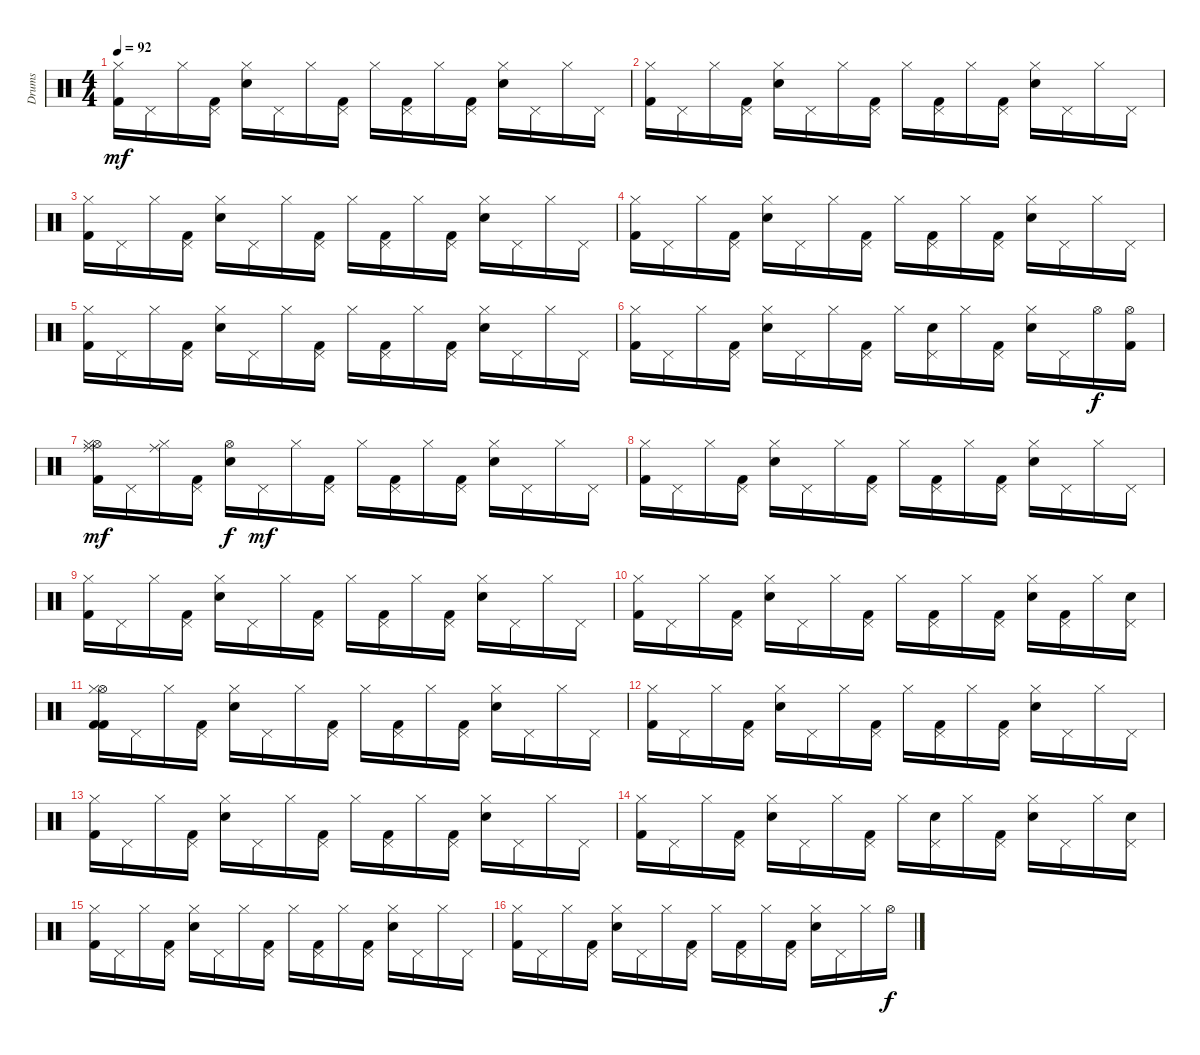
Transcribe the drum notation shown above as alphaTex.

\track ("Drums" "Drums") {instrument percussion}
\staff {score}
\articulation defaults
\ts (4 4)
\tempo 92
\clef neutral
\ks c
("Kick (hit) 2" "Hi-Hat (closed)").16{dy mf} "Pedal Hi-Hat (hit)".16 "Hi-Hat (closed)".16 ("Kick (hit) 2" "Pedal Hi-Hat (hit)").16 ("Electric Snare (hit)" "Hi-Hat (closed)").16 "Pedal Hi-Hat (hit)".16 "Hi-Hat (closed)".16 ("Kick (hit) 2" "Pedal Hi-Hat (hit)").16 "Hi-Hat (closed)".16 ("Kick (hit) 2" "Pedal Hi-Hat (hit)").16 "Hi-Hat (closed)".16 ("Kick (hit) 2" "Pedal Hi-Hat (hit)").16 ("Electric Snare (hit)" "Hi-Hat (closed)").16 "Pedal Hi-Hat (hit)".16 "Hi-Hat (closed)".16 "Pedal Hi-Hat (hit)".16 |
("Kick (hit) 2" "Hi-Hat (closed)").16 "Pedal Hi-Hat (hit)".16 "Hi-Hat (closed)".16 ("Kick (hit) 2" "Pedal Hi-Hat (hit)").16 ("Electric Snare (hit)" "Hi-Hat (closed)").16 "Pedal Hi-Hat (hit)".16 "Hi-Hat (closed)".16 ("Kick (hit) 2" "Pedal Hi-Hat (hit)").16 "Hi-Hat (closed)".16 ("Kick (hit) 2" "Pedal Hi-Hat (hit)").16 "Hi-Hat (closed)".16 ("Kick (hit) 2" "Pedal Hi-Hat (hit)").16 ("Electric Snare (hit)" "Hi-Hat (closed)").16 "Pedal Hi-Hat (hit)".16 "Hi-Hat (closed)".16 "Pedal Hi-Hat (hit)".16 |
("Kick (hit) 2" "Hi-Hat (closed)").16 "Pedal Hi-Hat (hit)".16 "Hi-Hat (closed)".16 ("Kick (hit) 2" "Pedal Hi-Hat (hit)").16 ("Electric Snare (hit)" "Hi-Hat (closed)").16 "Pedal Hi-Hat (hit)".16 "Hi-Hat (closed)".16 ("Kick (hit) 2" "Pedal Hi-Hat (hit)").16 "Hi-Hat (closed)".16 ("Kick (hit) 2" "Pedal Hi-Hat (hit)").16 "Hi-Hat (closed)".16 ("Kick (hit) 2" "Pedal Hi-Hat (hit)").16 ("Electric Snare (hit)" "Hi-Hat (closed)").16 "Pedal Hi-Hat (hit)".16 "Hi-Hat (closed)".16 "Pedal Hi-Hat (hit)".16 |
("Kick (hit) 2" "Hi-Hat (closed)").16 "Pedal Hi-Hat (hit)".16 "Hi-Hat (closed)".16 ("Kick (hit) 2" "Pedal Hi-Hat (hit)").16 ("Electric Snare (hit)" "Hi-Hat (closed)").16 "Pedal Hi-Hat (hit)".16 "Hi-Hat (closed)".16 ("Kick (hit) 2" "Pedal Hi-Hat (hit)").16 "Hi-Hat (closed)".16 ("Kick (hit) 2" "Pedal Hi-Hat (hit)").16 "Hi-Hat (closed)".16 ("Kick (hit) 2" "Pedal Hi-Hat (hit)").16 ("Electric Snare (hit)" "Hi-Hat (closed)").16 "Pedal Hi-Hat (hit)".16 "Hi-Hat (closed)".16 "Pedal Hi-Hat (hit)".16 |
("Kick (hit) 2" "Hi-Hat (closed)").16 "Pedal Hi-Hat (hit)".16 "Hi-Hat (closed)".16 ("Kick (hit) 2" "Pedal Hi-Hat (hit)").16 ("Electric Snare (hit)" "Hi-Hat (closed)").16 "Pedal Hi-Hat (hit)".16 "Hi-Hat (closed)".16 ("Kick (hit) 2" "Pedal Hi-Hat (hit)").16 "Hi-Hat (closed)".16 ("Kick (hit) 2" "Pedal Hi-Hat (hit)").16 "Hi-Hat (closed)".16 ("Kick (hit) 2" "Pedal Hi-Hat (hit)").16 ("Electric Snare (hit)" "Hi-Hat (closed)").16 "Pedal Hi-Hat (hit)".16 "Hi-Hat (closed)".16 "Pedal Hi-Hat (hit)".16 |
("Kick (hit) 2" "Hi-Hat (closed)").16 "Pedal Hi-Hat (hit)".16 "Hi-Hat (closed)".16 ("Kick (hit) 2" "Pedal Hi-Hat (hit)").16 ("Electric Snare (hit)" "Hi-Hat (closed)").16 "Pedal Hi-Hat (hit)".16 "Hi-Hat (closed)".16 ("Kick (hit) 2" "Pedal Hi-Hat (hit)").16 "Hi-Hat (closed)".16 ("Electric Snare (hit)" "Pedal Hi-Hat (hit)").16 "Hi-Hat (closed)".16 ("Kick (hit) 2" "Pedal Hi-Hat (hit)").16 ("Electric Snare (hit)" "Hi-Hat (closed)").16 "Pedal Hi-Hat (hit)".16 "Hi-Hat (open)".16{dy f} ("Hi-Hat (open)" "Kick (hit) 2").16 |
("Ride (middle)" "Hi-Hat (open)" "Kick (hit) 2" "Hi-Hat (closed)").16{dy mf} "Pedal Hi-Hat (hit)".16 ("Ride (middle)" "Hi-Hat (closed)").16 ("Kick (hit) 2" "Pedal Hi-Hat (hit)").16 ("Electric Snare (hit)" "Hi-Hat (open)").16{dy f} "Pedal Hi-Hat (hit)".16{dy mf} "Hi-Hat (closed)".16 ("Kick (hit) 2" "Pedal Hi-Hat (hit)").16 "Hi-Hat (closed)".16 ("Kick (hit) 2" "Pedal Hi-Hat (hit)").16 "Hi-Hat (closed)".16 ("Kick (hit) 2" "Pedal Hi-Hat (hit)").16 ("Electric Snare (hit)" "Hi-Hat (closed)").16 "Pedal Hi-Hat (hit)".16 "Hi-Hat (closed)".16 "Pedal Hi-Hat (hit)".16 |
("Kick (hit) 2" "Hi-Hat (closed)").16 "Pedal Hi-Hat (hit)".16 "Hi-Hat (closed)".16 ("Kick (hit) 2" "Pedal Hi-Hat (hit)").16 ("Electric Snare (hit)" "Hi-Hat (closed)").16 "Pedal Hi-Hat (hit)".16 "Hi-Hat (closed)".16 ("Kick (hit) 2" "Pedal Hi-Hat (hit)").16 "Hi-Hat (closed)".16 ("Kick (hit) 2" "Pedal Hi-Hat (hit)").16 "Hi-Hat (closed)".16 ("Kick (hit) 2" "Pedal Hi-Hat (hit)").16 ("Electric Snare (hit)" "Hi-Hat (closed)").16 "Pedal Hi-Hat (hit)".16 "Hi-Hat (closed)".16 "Pedal Hi-Hat (hit)".16 |
("Kick (hit) 2" "Hi-Hat (closed)").16 "Pedal Hi-Hat (hit)".16 "Hi-Hat (closed)".16 ("Kick (hit) 2" "Pedal Hi-Hat (hit)").16 ("Electric Snare (hit)" "Hi-Hat (closed)").16 "Pedal Hi-Hat (hit)".16 "Hi-Hat (closed)".16 ("Kick (hit) 2" "Pedal Hi-Hat (hit)").16 "Hi-Hat (closed)".16 ("Kick (hit) 2" "Pedal Hi-Hat (hit)").16 "Hi-Hat (closed)".16 ("Kick (hit) 2" "Pedal Hi-Hat (hit)").16 ("Electric Snare (hit)" "Hi-Hat (closed)").16 "Pedal Hi-Hat (hit)".16 "Hi-Hat (closed)".16 "Pedal Hi-Hat (hit)".16 |
("Kick (hit) 2" "Hi-Hat (closed)").16 "Pedal Hi-Hat (hit)".16 "Hi-Hat (closed)".16 ("Kick (hit) 2" "Pedal Hi-Hat (hit)").16 ("Electric Snare (hit)" "Hi-Hat (closed)").16 "Pedal Hi-Hat (hit)".16 "Hi-Hat (closed)".16 ("Kick (hit) 2" "Pedal Hi-Hat (hit)").16 "Hi-Hat (closed)".16 ("Kick (hit) 2" "Pedal Hi-Hat (hit)").16 "Hi-Hat (closed)".16 ("Kick (hit) 2" "Pedal Hi-Hat (hit)").16 ("Electric Snare (hit)" "Hi-Hat (closed)").16 ("Kick (hit) 2" "Pedal Hi-Hat (hit)").16 "Hi-Hat (closed)".16 ("Electric Snare (hit)" "Pedal Hi-Hat (hit)").16 |
("Kick (hit) 2" "Kick (hit) 2" "Hi-Hat (open)" "Hi-Hat (closed)").16 "Pedal Hi-Hat (hit)".16 "Hi-Hat (closed)".16 ("Kick (hit) 2" "Pedal Hi-Hat (hit)").16 ("Electric Snare (hit)" "Hi-Hat (closed)").16 "Pedal Hi-Hat (hit)".16 "Hi-Hat (closed)".16 ("Kick (hit) 2" "Pedal Hi-Hat (hit)").16 "Hi-Hat (closed)".16 ("Kick (hit) 2" "Pedal Hi-Hat (hit)").16 "Hi-Hat (closed)".16 ("Kick (hit) 2" "Pedal Hi-Hat (hit)").16 ("Electric Snare (hit)" "Hi-Hat (closed)").16 "Pedal Hi-Hat (hit)".16 "Hi-Hat (closed)".16 "Pedal Hi-Hat (hit)".16 |
("Kick (hit) 2" "Hi-Hat (closed)").16 "Pedal Hi-Hat (hit)".16 "Hi-Hat (closed)".16 ("Kick (hit) 2" "Pedal Hi-Hat (hit)").16 ("Electric Snare (hit)" "Hi-Hat (closed)").16 "Pedal Hi-Hat (hit)".16 "Hi-Hat (closed)".16 ("Kick (hit) 2" "Pedal Hi-Hat (hit)").16 "Hi-Hat (closed)".16 ("Kick (hit) 2" "Pedal Hi-Hat (hit)").16 "Hi-Hat (closed)".16 ("Kick (hit) 2" "Pedal Hi-Hat (hit)").16 ("Electric Snare (hit)" "Hi-Hat (closed)").16 "Pedal Hi-Hat (hit)".16 "Hi-Hat (closed)".16 "Pedal Hi-Hat (hit)".16 |
("Kick (hit) 2" "Hi-Hat (closed)").16 "Pedal Hi-Hat (hit)".16 "Hi-Hat (closed)".16 ("Kick (hit) 2" "Pedal Hi-Hat (hit)").16 ("Electric Snare (hit)" "Hi-Hat (closed)").16 "Pedal Hi-Hat (hit)".16 "Hi-Hat (closed)".16 ("Kick (hit) 2" "Pedal Hi-Hat (hit)").16 "Hi-Hat (closed)".16 ("Kick (hit) 2" "Pedal Hi-Hat (hit)").16 "Hi-Hat (closed)".16 ("Kick (hit) 2" "Pedal Hi-Hat (hit)").16 ("Electric Snare (hit)" "Hi-Hat (closed)").16 "Pedal Hi-Hat (hit)".16 "Hi-Hat (closed)".16 "Pedal Hi-Hat (hit)".16 |
("Kick (hit) 2" "Hi-Hat (closed)").16 "Pedal Hi-Hat (hit)".16 "Hi-Hat (closed)".16 ("Kick (hit) 2" "Pedal Hi-Hat (hit)").16 ("Electric Snare (hit)" "Hi-Hat (closed)").16 "Pedal Hi-Hat (hit)".16 "Hi-Hat (closed)".16 ("Kick (hit) 2" "Pedal Hi-Hat (hit)").16 "Hi-Hat (closed)".16 ("Electric Snare (hit)" "Pedal Hi-Hat (hit)").16 "Hi-Hat (closed)".16 ("Kick (hit) 2" "Pedal Hi-Hat (hit)").16 ("Electric Snare (hit)" "Hi-Hat (closed)").16 "Pedal Hi-Hat (hit)".16 "Hi-Hat (closed)".16 ("Electric Snare (hit)" "Pedal Hi-Hat (hit)").16 |
("Kick (hit) 2" "Hi-Hat (closed)").16 "Pedal Hi-Hat (hit)".16 "Hi-Hat (closed)".16 ("Kick (hit) 2" "Pedal Hi-Hat (hit)").16 ("Electric Snare (hit)" "Hi-Hat (closed)").16 "Pedal Hi-Hat (hit)".16 "Hi-Hat (closed)".16 ("Kick (hit) 2" "Pedal Hi-Hat (hit)").16 "Hi-Hat (closed)".16 ("Kick (hit) 2" "Pedal Hi-Hat (hit)").16 "Hi-Hat (closed)".16 ("Kick (hit) 2" "Pedal Hi-Hat (hit)").16 ("Electric Snare (hit)" "Hi-Hat (closed)").16 "Pedal Hi-Hat (hit)".16 "Hi-Hat (closed)".16 "Pedal Hi-Hat (hit)".16 |
("Kick (hit) 2" "Hi-Hat (closed)").16 "Pedal Hi-Hat (hit)".16 "Hi-Hat (closed)".16 ("Kick (hit) 2" "Pedal Hi-Hat (hit)").16 ("Electric Snare (hit)" "Hi-Hat (closed)").16 "Pedal Hi-Hat (hit)".16 "Hi-Hat (closed)".16 ("Kick (hit) 2" "Pedal Hi-Hat (hit)").16 "Hi-Hat (closed)".16 ("Kick (hit) 2" "Pedal Hi-Hat (hit)").16 "Hi-Hat (closed)".16 ("Kick (hit) 2" "Pedal Hi-Hat (hit)").16 ("Electric Snare (hit)" "Hi-Hat (closed)").16 "Pedal Hi-Hat (hit)".16 "Hi-Hat (closed)".16 "Hi-Hat (open)".16{dy f}
